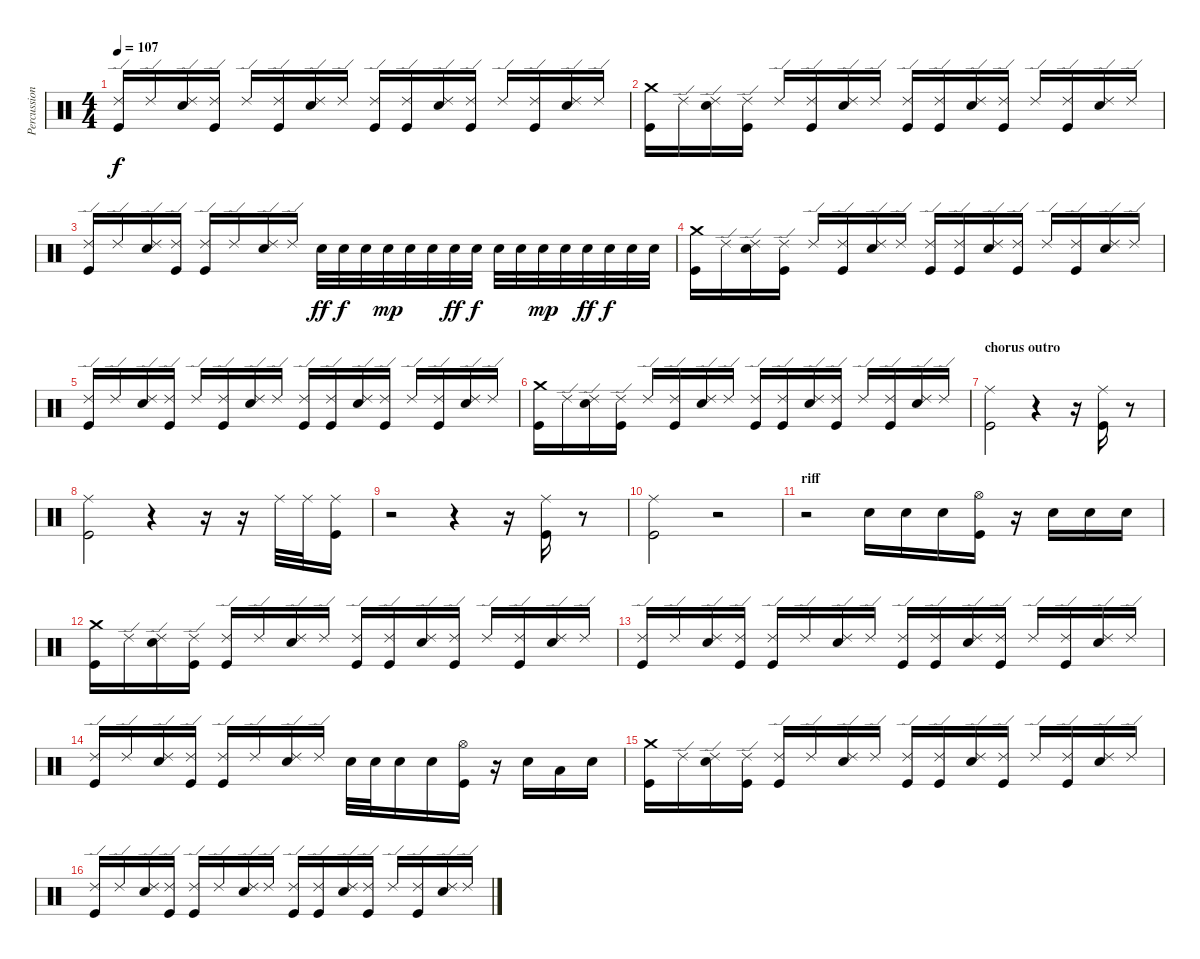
\track ("Percussion" "Percussion") {instrument percussion}
\staff {score}
\articulation defaults
\ts (4 4)
\tempo 107
\clef neutral
\ks c
("Ride (edge) 2" "Kick (hit)").16{dy f} "Ride (edge) 2".16 ("Ride (edge) 2" "Electric Snare (hit)").16 ("Ride (edge) 2" "Kick (hit)").16 "Ride (edge) 2".16 ("Ride (edge) 2" "Kick (hit)").16 ("Ride (edge) 2" "Electric Snare (hit)").16 "Ride (edge) 2".16 ("Ride (edge) 2" "Kick (hit)").16 ("Ride (edge) 2" "Kick (hit)").16 ("Ride (edge) 2" "Electric Snare (hit)").16 ("Ride (edge) 2" "Kick (hit)").16 "Ride (edge) 2".16 ("Ride (edge) 2" "Kick (hit)").16 ("Ride (edge) 2" "Electric Snare (hit)").16 "Ride (edge) 2".16 |
("Crash medium (hit)" "Kick (hit)").16 "Ride (edge) 2".16 ("Ride (edge) 2" "Electric Snare (hit)").16 ("Ride (edge) 2" "Kick (hit)").16 "Ride (edge) 2".16 ("Ride (edge) 2" "Kick (hit)").16 ("Ride (edge) 2" "Electric Snare (hit)").16 "Ride (edge) 2".16 ("Ride (edge) 2" "Kick (hit)").16 ("Ride (edge) 2" "Kick (hit)").16 ("Ride (edge) 2" "Electric Snare (hit)").16 ("Ride (edge) 2" "Kick (hit)").16 "Ride (edge) 2".16 ("Ride (edge) 2" "Kick (hit)").16 ("Ride (edge) 2" "Electric Snare (hit)").16 "Ride (edge) 2".16 |
("Ride (edge) 2" "Kick (hit)").16 "Ride (edge) 2".16 ("Ride (edge) 2" "Electric Snare (hit)").16 ("Ride (edge) 2" "Kick (hit)").16 ("Ride (edge) 2" "Kick (hit)").16 "Ride (edge) 2".16 ("Ride (edge) 2" "Electric Snare (hit)").16 "Ride (edge) 2".16 "Electric Snare (hit)".32{dy ff} "Electric Snare (hit)".32{dy f} "Electric Snare (hit)".32 "Electric Snare (hit)".32{dy mp} "Electric Snare (hit)".32 "Electric Snare (hit)".32 "Electric Snare (hit)".32{dy ff} "Electric Snare (hit)".32{dy f} "Electric Snare (hit)".32 "Electric Snare (hit)".32 "Electric Snare (hit)".32{dy mp} "Electric Snare (hit)".32 "Electric Snare (hit)".32{dy ff} "Electric Snare (hit)".32{dy f} "Electric Snare (hit)".32 "Electric Snare (hit)".32 |
("Crash medium (hit)" "Kick (hit)").16 "Ride (edge) 2".16 ("Ride (edge) 2" "Electric Snare (hit)").16 ("Ride (edge) 2" "Kick (hit)").16 "Ride (edge) 2".16 ("Ride (edge) 2" "Kick (hit)").16 ("Ride (edge) 2" "Electric Snare (hit)").16 "Ride (edge) 2".16 ("Ride (edge) 2" "Kick (hit)").16 ("Ride (edge) 2" "Kick (hit)").16 ("Ride (edge) 2" "Electric Snare (hit)").16 ("Ride (edge) 2" "Kick (hit)").16 "Ride (edge) 2".16 ("Ride (edge) 2" "Kick (hit)").16 ("Ride (edge) 2" "Electric Snare (hit)").16 "Ride (edge) 2".16 |
("Ride (edge) 2" "Kick (hit)").16 "Ride (edge) 2".16 ("Ride (edge) 2" "Electric Snare (hit)").16 ("Ride (edge) 2" "Kick (hit)").16 "Ride (edge) 2".16 ("Ride (edge) 2" "Kick (hit)").16 ("Ride (edge) 2" "Electric Snare (hit)").16 "Ride (edge) 2".16 ("Ride (edge) 2" "Kick (hit)").16 ("Ride (edge) 2" "Kick (hit)").16 ("Ride (edge) 2" "Electric Snare (hit)").16 ("Ride (edge) 2" "Kick (hit)").16 "Ride (edge) 2".16 ("Ride (edge) 2" "Kick (hit)").16 ("Ride (edge) 2" "Electric Snare (hit)").16 "Ride (edge) 2".16 |
("Crash medium (hit)" "Kick (hit)").16 "Ride (edge) 2".16 ("Ride (edge) 2" "Electric Snare (hit)").16 ("Ride (edge) 2" "Kick (hit)").16 "Ride (edge) 2".16 ("Ride (edge) 2" "Kick (hit)").16 ("Ride (edge) 2" "Electric Snare (hit)").16 "Ride (edge) 2".16 ("Ride (edge) 2" "Kick (hit)").16 ("Ride (edge) 2" "Kick (hit)").16 ("Ride (edge) 2" "Electric Snare (hit)").16 ("Ride (edge) 2" "Kick (hit)").16 "Ride (edge) 2".16 ("Ride (edge) 2" "Kick (hit)").16 ("Ride (edge) 2" "Electric Snare (hit)").16 "Ride (edge) 2".16 |
\section ("" "chorus outro")
("Ride (middle)" "Kick (hit)").2 r.4 r.16 ("Ride (middle)" "Kick (hit)").16 r.8 |
("Ride (middle)" "Kick (hit)").2 r.4 r.16 r.16 "Ride (middle)".32 "Ride (middle)".32 ("Ride (middle)" "Kick (hit)").16 |
r.2 r.4 r.16 ("Ride (middle)" "Kick (hit)").16 r.8 |
("Ride (middle)" "Kick (hit)").2 r.2 |
\section ("" "riff")
r.2 "Electric Snare (hit)".16 "Electric Snare (hit)".16 "Electric Snare (hit)".16 ("Hi-Hat (open)" "Kick (hit)").16 r.16 "Electric Snare (hit)".16 "Electric Snare (hit)".16 "Electric Snare (hit)".16 |
("Crash medium (hit)" "Kick (hit)").16 "Ride (edge) 2".16 ("Ride (edge) 2" "Electric Snare (hit)").16 ("Ride (edge) 2" "Kick (hit)").16 ("Ride (edge) 2" "Kick (hit)").16 "Ride (edge) 2".16 ("Ride (edge) 2" "Electric Snare (hit)").16 "Ride (edge) 2".16 ("Ride (edge) 2" "Kick (hit)").16 ("Ride (edge) 2" "Kick (hit)").16 ("Ride (edge) 2" "Electric Snare (hit)").16 ("Ride (edge) 2" "Kick (hit)").16 "Ride (edge) 2".16 ("Ride (edge) 2" "Kick (hit)").16 ("Ride (edge) 2" "Electric Snare (hit)").16 "Ride (edge) 2".16 |
("Ride (edge) 2" "Kick (hit)").16 "Ride (edge) 2".16 ("Ride (edge) 2" "Electric Snare (hit)").16 ("Ride (edge) 2" "Kick (hit)").16 ("Ride (edge) 2" "Kick (hit)").16 "Ride (edge) 2".16 ("Ride (edge) 2" "Electric Snare (hit)").16 "Ride (edge) 2".16 ("Ride (edge) 2" "Kick (hit)").16 ("Ride (edge) 2" "Kick (hit)").16 ("Ride (edge) 2" "Electric Snare (hit)").16 ("Ride (edge) 2" "Kick (hit)").16 "Ride (edge) 2".16 ("Ride (edge) 2" "Kick (hit)").16 ("Ride (edge) 2" "Electric Snare (hit)").16 "Ride (edge) 2".16 |
("Ride (edge) 2" "Kick (hit)").16 "Ride (edge) 2".16 ("Ride (edge) 2" "Electric Snare (hit)").16 ("Ride (edge) 2" "Kick (hit)").16 ("Ride (edge) 2" "Kick (hit)").16 "Ride (edge) 2".16 ("Ride (edge) 2" "Electric Snare (hit)").16 "Ride (edge) 2".16 "Electric Snare (hit)".32 "Electric Snare (hit)".32 "Electric Snare (hit)".16 "Electric Snare (hit)".16 ("Hi-Hat (open)" "Kick (hit)").16 r.16 "Electric Snare (hit)".16 "Low Tom (hit)".16 "Electric Snare (hit)".16 |
("Crash medium (hit)" "Kick (hit)").16 "Ride (edge) 2".16 ("Ride (edge) 2" "Electric Snare (hit)").16 ("Ride (edge) 2" "Kick (hit)").16 ("Ride (edge) 2" "Kick (hit)").16 "Ride (edge) 2".16 ("Ride (edge) 2" "Electric Snare (hit)").16 "Ride (edge) 2".16 ("Ride (edge) 2" "Kick (hit)").16 ("Ride (edge) 2" "Kick (hit)").16 ("Ride (edge) 2" "Electric Snare (hit)").16 ("Ride (edge) 2" "Kick (hit)").16 "Ride (edge) 2".16 ("Ride (edge) 2" "Kick (hit)").16 ("Ride (edge) 2" "Electric Snare (hit)").16 "Ride (edge) 2".16 |
("Ride (edge) 2" "Kick (hit)").16 "Ride (edge) 2".16 ("Ride (edge) 2" "Electric Snare (hit)").16 ("Ride (edge) 2" "Kick (hit)").16 ("Ride (edge) 2" "Kick (hit)").16 "Ride (edge) 2".16 ("Ride (edge) 2" "Electric Snare (hit)").16 "Ride (edge) 2".16 ("Ride (edge) 2" "Kick (hit)").16 ("Ride (edge) 2" "Kick (hit)").16 ("Ride (edge) 2" "Electric Snare (hit)").16 ("Ride (edge) 2" "Kick (hit)").16 "Ride (edge) 2".16 ("Ride (edge) 2" "Kick (hit)").16 ("Ride (edge) 2" "Electric Snare (hit)").16 "Ride (edge) 2".16
